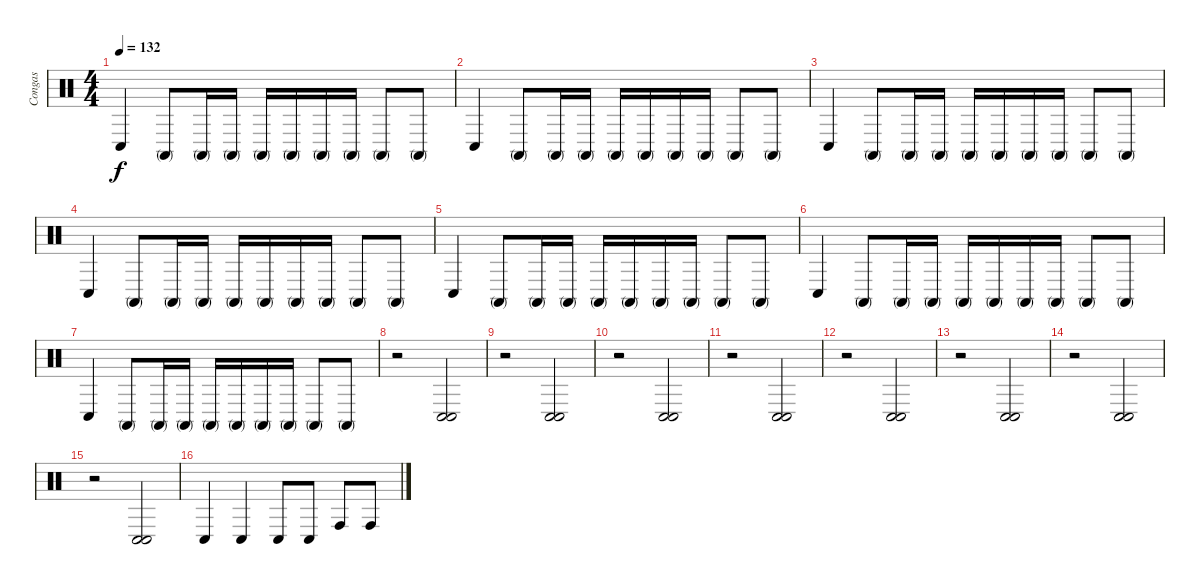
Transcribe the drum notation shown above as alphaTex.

\track ("Congas" "Congas") {instrument percussion}
\staff {score}
\articulation defaults
\ts (4 4)
\tempo 132
\clef neutral
\ks c "Conga low (hit)".4{dy f} "Conga high (mute)".8 "Conga high (mute)".16 "Conga high (mute)".16 "Conga high (mute)".16 "Conga high (mute)".16 "Conga high (mute)".16 "Conga high (mute)".16 "Conga high (mute)".8 "Conga high (mute)".8
|
"Conga low (hit)".4 "Conga high (mute)".8 "Conga high (mute)".16 "Conga high (mute)".16 "Conga high (mute)".16 "Conga high (mute)".16 "Conga high (mute)".16 "Conga high (mute)".16 "Conga high (mute)".8 "Conga high (mute)".8 |
"Conga low (hit)".4 "Conga high (mute)".8 "Conga high (mute)".16 "Conga high (mute)".16 "Conga high (mute)".16 "Conga high (mute)".16 "Conga high (mute)".16 "Conga high (mute)".16 "Conga high (mute)".8 "Conga high (mute)".8 |
"Conga low (hit)".4 "Conga high (mute)".8 "Conga high (mute)".16 "Conga high (mute)".16 "Conga high (mute)".16 "Conga high (mute)".16 "Conga high (mute)".16 "Conga high (mute)".16 "Conga high (mute)".8 "Conga high (mute)".8 |
"Conga low (hit)".4 "Conga high (mute)".8 "Conga high (mute)".16 "Conga high (mute)".16 "Conga high (mute)".16 "Conga high (mute)".16 "Conga high (mute)".16 "Conga high (mute)".16 "Conga high (mute)".8 "Conga high (mute)".8 |
"Conga low (hit)".4 "Conga high (mute)".8 "Conga high (mute)".16 "Conga high (mute)".16 "Conga high (mute)".16 "Conga high (mute)".16 "Conga high (mute)".16 "Conga high (mute)".16 "Conga high (mute)".8 "Conga high (mute)".8 |
"Conga low (hit)".4 "Conga high (mute)".8 "Conga high (mute)".16 "Conga high (mute)".16 "Conga high (mute)".16 "Conga high (mute)".16 "Conga high (mute)".16 "Conga high (mute)".16 "Conga high (mute)".8 "Conga high (mute)".8 |
r.2 ("Conga low (hit)" "Conga low (hit)").2 |
r.2 ("Conga low (hit)" "Conga low (hit)").2 |
r.2 ("Conga low (hit)" "Conga low (hit)").2 |
r.2 ("Conga low (hit)" "Conga low (hit)").2 |
r.2 ("Conga low (hit)" "Conga low (hit)").2 |
r.2 ("Conga low (hit)" "Conga low (hit)").2 |
r.2 ("Conga low (hit)" "Conga low (hit)").2 |
r.2 ("Conga low (hit)" "Conga low (hit)").2 |
"Conga low (hit)".4 "Conga low (hit)".4 "Conga low (hit)".8 "Conga low (hit)".8 "Conga high (hit)".8 "Conga high (hit)".8
